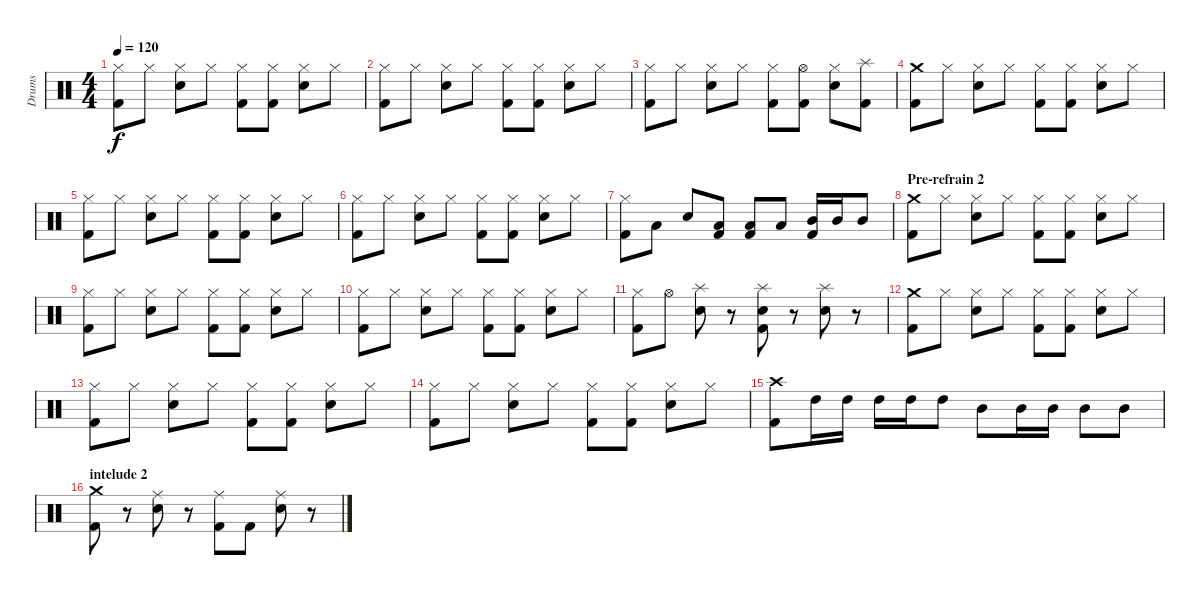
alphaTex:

\track ("Drums" "Drums") {instrument percussion}
\staff {score}
\articulation defaults
\ts (4 4)
\tempo 120
\clef neutral
\ks c
("Hi-Hat (closed)" "Kick (hit) 2").8{dy f} "Hi-Hat (closed)".8 ("Hi-Hat (closed)" "Snare (hit) 2").8 "Hi-Hat (closed)".8 ("Hi-Hat (closed)" "Kick (hit) 2").8 ("Hi-Hat (closed)" "Kick (hit) 2").8 ("Hi-Hat (closed)" "Snare (hit) 2").8 "Hi-Hat (closed)".8 |
("Hi-Hat (closed)" "Kick (hit) 2").8 "Hi-Hat (closed)".8 ("Hi-Hat (closed)" "Snare (hit) 2").8 "Hi-Hat (closed)".8 ("Hi-Hat (closed)" "Kick (hit) 2").8 ("Hi-Hat (closed)" "Kick (hit) 2").8 ("Hi-Hat (closed)" "Snare (hit) 2").8 "Hi-Hat (closed)".8 |
("Hi-Hat (closed)" "Kick (hit) 2").8 "Hi-Hat (closed)".8 ("Hi-Hat (closed)" "Snare (hit) 2").8 "Hi-Hat (closed)".8 ("Hi-Hat (closed)" "Kick (hit) 2").8 ("Hi-Hat (open)" "Kick (hit) 2").8 ("Hi-Hat (closed)" "Snare (hit) 2").8 ("Splash (hit)" "Kick (hit) 2").8 |
("Crash medium (hit)" "Kick (hit) 2").8 "Hi-Hat (closed)".8 ("Hi-Hat (closed)" "Snare (hit) 2").8 "Hi-Hat (closed)".8 ("Hi-Hat (closed)" "Kick (hit) 2").8 ("Hi-Hat (closed)" "Kick (hit) 2").8 ("Hi-Hat (closed)" "Snare (hit) 2").8 "Hi-Hat (closed)".8 |
("Hi-Hat (closed)" "Kick (hit) 2").8 "Hi-Hat (closed)".8 ("Hi-Hat (closed)" "Snare (hit) 2").8 "Hi-Hat (closed)".8 ("Hi-Hat (closed)" "Kick (hit) 2").8 ("Hi-Hat (closed)" "Kick (hit) 2").8 ("Hi-Hat (closed)" "Snare (hit) 2").8 "Hi-Hat (closed)".8 |
("Hi-Hat (closed)" "Kick (hit) 2").8 "Hi-Hat (closed)".8 ("Hi-Hat (closed)" "Snare (hit) 2").8 "Hi-Hat (closed)".8 ("Hi-Hat (closed)" "Kick (hit) 2").8 ("Hi-Hat (closed)" "Kick (hit) 2").8 ("Hi-Hat (closed)" "Snare (hit) 2").8 "Hi-Hat (closed)".8 |
("Hi-Hat (closed)" "Kick (hit) 2").8 "Low Tom (hit)".8 "Snare (hit) 2".8 ("Low Tom (hit)" "Kick (hit) 2").8 ("Low Tom (hit)" "Kick (hit) 2").8 "Low Tom (hit)".8 ("Mid Tom (hit)" "Kick (hit) 2").16 "Mid Tom (hit)".16 "Mid Tom (hit)".8 |
\section ("" "Pre-refrain 2")
("Crash medium (hit)" "Kick (hit) 2").8 "Hi-Hat (closed)".8 ("Hi-Hat (closed)" "Snare (hit) 2").8 "Hi-Hat (closed)".8 ("Hi-Hat (closed)" "Kick (hit) 2").8 ("Hi-Hat (closed)" "Kick (hit) 2").8 ("Hi-Hat (closed)" "Snare (hit) 2").8 "Hi-Hat (closed)".8 |
("Hi-Hat (closed)" "Kick (hit) 2").8 "Hi-Hat (closed)".8 ("Hi-Hat (closed)" "Snare (hit) 2").8 "Hi-Hat (closed)".8 ("Hi-Hat (closed)" "Kick (hit) 2").8 ("Hi-Hat (closed)" "Kick (hit) 2").8 ("Hi-Hat (closed)" "Snare (hit) 2").8 "Hi-Hat (closed)".8 |
("Hi-Hat (closed)" "Kick (hit) 2").8 "Hi-Hat (closed)".8 ("Hi-Hat (closed)" "Snare (hit) 2").8 "Hi-Hat (closed)".8 ("Hi-Hat (closed)" "Kick (hit) 2").8 ("Hi-Hat (closed)" "Kick (hit) 2").8 ("Hi-Hat (closed)" "Snare (hit) 2").8 "Hi-Hat (closed)".8 |
("Hi-Hat (closed)" "Kick (hit) 2").8 "Hi-Hat (open)".8 ("Splash (hit)" "Snare (hit) 2").8 r.8 ("Splash (hit)" "Snare (hit) 2" "Kick (hit) 2").8 r.8 ("Splash (hit)" "Snare (hit) 2").8 r.8 |
("Crash medium (hit)" "Kick (hit) 2").8 "Hi-Hat (closed)".8 ("Hi-Hat (closed)" "Snare (hit) 2").8 "Hi-Hat (closed)".8 ("Hi-Hat (closed)" "Kick (hit) 2").8 ("Hi-Hat (closed)" "Kick (hit) 2").8 ("Hi-Hat (closed)" "Snare (hit) 2").8 "Hi-Hat (closed)".8 |
("Hi-Hat (closed)" "Kick (hit) 2").8 "Hi-Hat (closed)".8 ("Hi-Hat (closed)" "Snare (hit) 2").8 "Hi-Hat (closed)".8 ("Hi-Hat (closed)" "Kick (hit) 2").8 ("Hi-Hat (closed)" "Kick (hit) 2").8 ("Hi-Hat (closed)" "Snare (hit) 2").8 "Hi-Hat (closed)".8 |
("Hi-Hat (closed)" "Kick (hit) 2").8 "Hi-Hat (closed)".8 ("Hi-Hat (closed)" "Snare (hit) 2").8 "Hi-Hat (closed)".8 ("Hi-Hat (closed)" "Kick (hit) 2").8 ("Hi-Hat (closed)" "Kick (hit) 2").8 ("Hi-Hat (closed)" "Snare (hit) 2").8 "Hi-Hat (closed)".8 |
("Crash high (hit)" "Kick (hit) 2").8 "High Tom (hit)".16 "High Tom (hit)".16 "High Tom (hit)".16 "High Tom (hit)".16 "High Tom (hit)".8 "Mid Tom (hit)".8 "Mid Tom (hit)".16 "Mid Tom (hit)".16 "Mid Tom (hit)".8 "Mid Tom (hit)".8 |
\section ("" "intelude 2")
("Crash medium (hit)" "Kick (hit) 2").8 r.8 ("Ride (middle)" "Snare (hit) 2").8 r.8 ("Ride (middle)" "Kick (hit) 2").8 "Kick (hit) 2".8 ("Ride (middle)" "Snare (hit) 2").8 r.8
